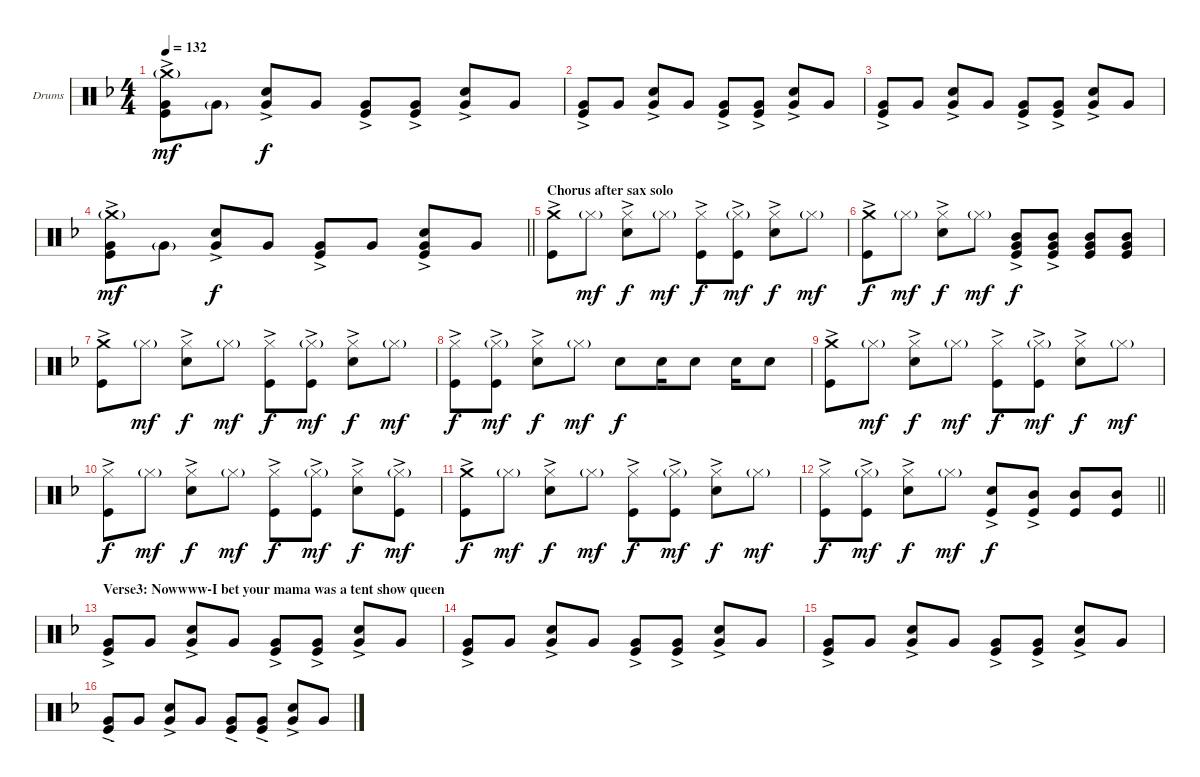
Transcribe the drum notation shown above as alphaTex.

\bracketExtendMode groupsimilarinstruments
\firstSystemTrackNameOrientation horizontal
\otherSystemsTrackNameOrientation horizontal
\track ("Drumkit" "Drums") {instrument percussion}
\staff {score}
\articulation defaults
\ts (4 4)
\tempo 132
\clef neutral
\ks f
("Crash medium (hit)"{g} "Very Low Tom (hit)"{ac} "Kick (hit)"{ac}).8{dy mf} "Very Low Tom (hit)"{g}.8 ("Snare (hit) 2"{ac} "Very Low Tom (hit)"{ac}).8{dy f} "Very Low Tom (hit)".8 ("Very Low Tom (hit)"{ac} "Kick (hit)"{ac}).8 ("Very Low Tom (hit)" "Kick (hit)"{ac}).8 ("Snare (hit) 2"{ac} "Very Low Tom (hit)"{ac}).8 "Very Low Tom (hit)".8 |
("Very Low Tom (hit)"{ac} "Kick (hit)"{ac}).8 "Very Low Tom (hit)".8 ("Snare (hit) 2"{ac} "Very Low Tom (hit)"{ac}).8 "Very Low Tom (hit)".8 ("Very Low Tom (hit)"{ac} "Kick (hit)"{ac}).8 ("Very Low Tom (hit)" "Kick (hit)"{ac}).8 ("Snare (hit) 2"{ac} "Very Low Tom (hit)"{ac}).8 "Very Low Tom (hit)".8 |
("Very Low Tom (hit)"{ac} "Kick (hit)"{ac}).8 "Very Low Tom (hit)".8 ("Snare (hit) 2"{ac} "Very Low Tom (hit)"{ac}).8 "Very Low Tom (hit)".8 ("Very Low Tom (hit)"{ac} "Kick (hit)"{ac}).8 ("Very Low Tom (hit)" "Kick (hit)"{ac}).8 ("Snare (hit) 2"{ac} "Very Low Tom (hit)"{ac}).8 "Very Low Tom (hit)".8 |
\barLineRight lightlight
("Crash medium (hit)"{g} "Very Low Tom (hit)"{ac} "Kick (hit)"{ac}).8{dy mf} "Very Low Tom (hit)"{g}.8 ("Snare (hit) 2"{ac} "Very Low Tom (hit)"{ac}).8{dy f} "Very Low Tom (hit)".8 ("Very Low Tom (hit)"{ac} "Kick (hit)"{ac}).8 "Very Low Tom (hit)".8 ("Snare (hit) 2"{ac} "Very Low Tom (hit)"{ac} "Kick (hit)"{ac}).8 "Very Low Tom (hit)".8 |
\section ("" "Chorus after sax solo")
("Crash medium (hit)" "Kick (hit)"{ac}).8 "Hi-Hat (closed)"{g}.8{dy mf} ("Hi-Hat (closed)" "Snare (hit) 2"{ac}).8{dy f} "Hi-Hat (closed)"{g}.8{dy mf} ("Hi-Hat (closed)" "Kick (hit)"{ac}).8{dy f} ("Hi-Hat (closed)"{g} "Kick (hit)"{ac}).8{dy mf} ("Hi-Hat (closed)" "Snare (hit) 2"{ac}).8{dy f} "Hi-Hat (closed)"{g}.8{dy mf} |
("Crash medium (hit)" "Kick (hit)"{ac}).8{dy f} "Hi-Hat (closed)"{g}.8{dy mf} ("Hi-Hat (closed)" "Snare (hit) 2"{ac}).8{dy f} "Hi-Hat (closed)"{g}.8{dy mf} ("Mid Tom (hit)" "Very Low Tom (hit)" "Kick (hit)"{ac}).8{dy f} ("Mid Tom (hit)" "Very Low Tom (hit)" "Kick (hit)"{ac}).8 ("Mid Tom (hit)" "Very Low Tom (hit)" "Kick (hit)").8 ("Mid Tom (hit)" "Very Low Tom (hit)" "Kick (hit)").8 |
("Crash medium (hit)" "Kick (hit)"{ac}).8 "Hi-Hat (closed)"{g}.8{dy mf} ("Hi-Hat (closed)" "Snare (hit) 2"{ac}).8{dy f} "Hi-Hat (closed)"{g}.8{dy mf} ("Hi-Hat (closed)" "Kick (hit)"{ac}).8{dy f} ("Hi-Hat (closed)"{g} "Kick (hit)"{ac}).8{dy mf} ("Hi-Hat (closed)" "Snare (hit) 2"{ac}).8{dy f} "Hi-Hat (closed)"{g}.8{dy mf} |
("Hi-Hat (closed)" "Kick (hit)"{ac}).8{dy f} ("Hi-Hat (closed)"{g} "Kick (hit)"{ac}).8{dy mf} ("Hi-Hat (closed)" "Snare (hit) 2"{ac}).8{dy f} "Hi-Hat (closed)"{g}.8{dy mf} "Snare (hit) 2".8{dy f} "Snare (hit) 2".16 "Snare (hit) 2".8 "Snare (hit) 2".16 "Snare (hit) 2".8 |
("Crash medium (hit)" "Kick (hit)"{ac}).8 "Hi-Hat (closed)"{g}.8{dy mf} ("Hi-Hat (closed)" "Snare (hit) 2"{ac}).8{dy f} "Hi-Hat (closed)"{g}.8{dy mf} ("Hi-Hat (closed)" "Kick (hit)"{ac}).8{dy f} ("Hi-Hat (closed)"{g} "Kick (hit)"{ac}).8{dy mf} ("Hi-Hat (closed)" "Snare (hit) 2"{ac}).8{dy f} "Hi-Hat (closed)"{g}.8{dy mf} |
("Hi-Hat (closed)" "Kick (hit)"{ac}).8{dy f} "Hi-Hat (closed)"{g}.8{dy mf} ("Hi-Hat (closed)" "Snare (hit) 2"{ac}).8{dy f} "Hi-Hat (closed)"{g}.8{dy mf} ("Hi-Hat (closed)" "Kick (hit)"{ac}).8{dy f} ("Hi-Hat (closed)"{g} "Kick (hit)"{ac}).8{dy mf} ("Hi-Hat (closed)" "Snare (hit) 2"{ac}).8{dy f} ("Hi-Hat (closed)"{g} "Kick (hit)"{ac}).8{dy mf} |
("Crash medium (hit)" "Kick (hit)"{ac}).8{dy f} "Hi-Hat (closed)"{g}.8{dy mf} ("Hi-Hat (closed)" "Snare (hit) 2"{ac}).8{dy f} "Hi-Hat (closed)"{g}.8{dy mf} ("Hi-Hat (closed)" "Kick (hit)"{ac}).8{dy f} ("Hi-Hat (closed)"{g} "Kick (hit)"{ac}).8{dy mf} ("Hi-Hat (closed)" "Snare (hit) 2"{ac}).8{dy f} "Hi-Hat (closed)"{g}.8{dy mf} |
\barLineRight lightlight
("Hi-Hat (closed)" "Kick (hit)"{ac}).8{dy f} ("Hi-Hat (closed)"{g} "Kick (hit)"{ac}).8{dy mf} ("Hi-Hat (closed)" "Snare (hit) 2"{ac}).8{dy f} "Hi-Hat (closed)"{g}.8{dy mf} ("Snare (hit) 2"{ac} "Kick (hit)"{ac}).8{dy f} ("Mid Tom (hit)" "Kick (hit)"{ac}).8 ("Mid Tom (hit)" "Kick (hit)").8 ("Mid Tom (hit)" "Kick (hit)").8 |
\section ("" "Verse3: Nowwww-I bet your mama was a tent show queen")
("Very Low Tom (hit)"{ac} "Kick (hit)"{ac}).8 "Very Low Tom (hit)".8 ("Snare (hit) 2"{ac} "Very Low Tom (hit)"{ac}).8 "Very Low Tom (hit)".8 ("Very Low Tom (hit)"{ac} "Kick (hit)"{ac}).8 ("Very Low Tom (hit)" "Kick (hit)"{ac}).8 ("Snare (hit) 2"{ac} "Very Low Tom (hit)"{ac}).8 "Very Low Tom (hit)".8 |
("Very Low Tom (hit)"{ac} "Kick (hit)"{ac}).8 "Very Low Tom (hit)".8 ("Snare (hit) 2"{ac} "Very Low Tom (hit)"{ac}).8 "Very Low Tom (hit)".8 ("Very Low Tom (hit)"{ac} "Kick (hit)"{ac}).8 ("Very Low Tom (hit)" "Kick (hit)"{ac}).8 ("Snare (hit) 2"{ac} "Very Low Tom (hit)"{ac}).8 "Very Low Tom (hit)".8 |
("Very Low Tom (hit)"{ac} "Kick (hit)"{ac}).8 "Very Low Tom (hit)".8 ("Snare (hit) 2"{ac} "Very Low Tom (hit)"{ac}).8 "Very Low Tom (hit)".8 ("Very Low Tom (hit)"{ac} "Kick (hit)"{ac}).8 ("Very Low Tom (hit)" "Kick (hit)"{ac}).8 ("Snare (hit) 2"{ac} "Very Low Tom (hit)"{ac}).8 "Very Low Tom (hit)".8 |
("Very Low Tom (hit)"{ac} "Kick (hit)"{ac}).8 "Very Low Tom (hit)".8 ("Snare (hit) 2"{ac} "Very Low Tom (hit)"{ac}).8 "Very Low Tom (hit)".8 ("Very Low Tom (hit)"{ac} "Kick (hit)"{ac}).8 ("Very Low Tom (hit)" "Kick (hit)"{ac}).8 ("Snare (hit) 2"{ac} "Very Low Tom (hit)"{ac}).8 "Very Low Tom (hit)".8
